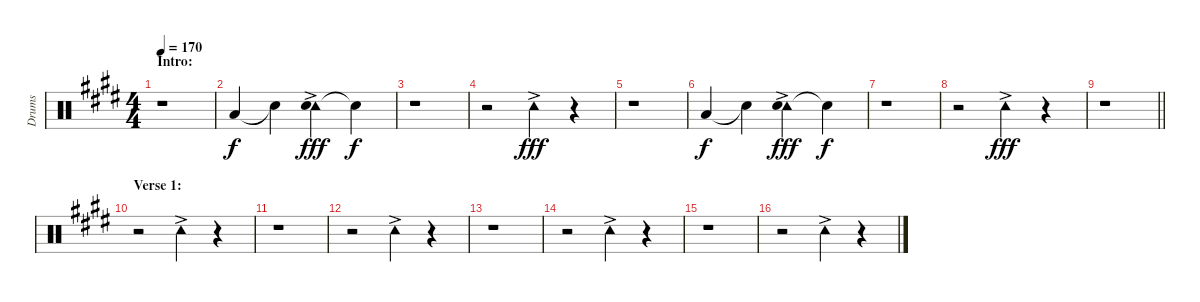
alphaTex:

\track ("Drums" "Drums") {instrument percussion}
\staff {score}
\articulation defaults
\ts (4 4)
\section ("" "Intro:")
\tempo 170
\clef neutral
\ks c#minor
r.1{dy f volume 13 balance 8} |
"Low Floor Tom (hit)".4 "Snare (hit)"{t}.4 ("Tambourine (hit)"{ac} "Snare (hit)").4{dy fff} "Snare (hit)"{t}.4{dy f} |
r.1 |
r.2 "Tambourine (hit)"{ac}.4{dy fff} r.4 |
r.1 |
"Low Floor Tom (hit)".4{dy f} "Snare (hit)"{t}.4 ("Tambourine (hit)"{ac} "Snare (hit)").4{dy fff} "Snare (hit)"{t}.4{dy f} |
r.1 |
r.2 "Tambourine (hit)"{ac}.4{dy fff} r.4 |
\barLineRight lightlight
r.1 |
\section ("" "Verse 1:")
r.2 "Tambourine (hit)"{ac}.4 r.4 |
r.1 |
r.2 "Tambourine (hit)"{ac}.4 r.4 |
r.1 |
r.2 "Tambourine (hit)"{ac}.4 r.4 |
r.1 |
r.2 "Tambourine (hit)"{ac}.4 r.4
